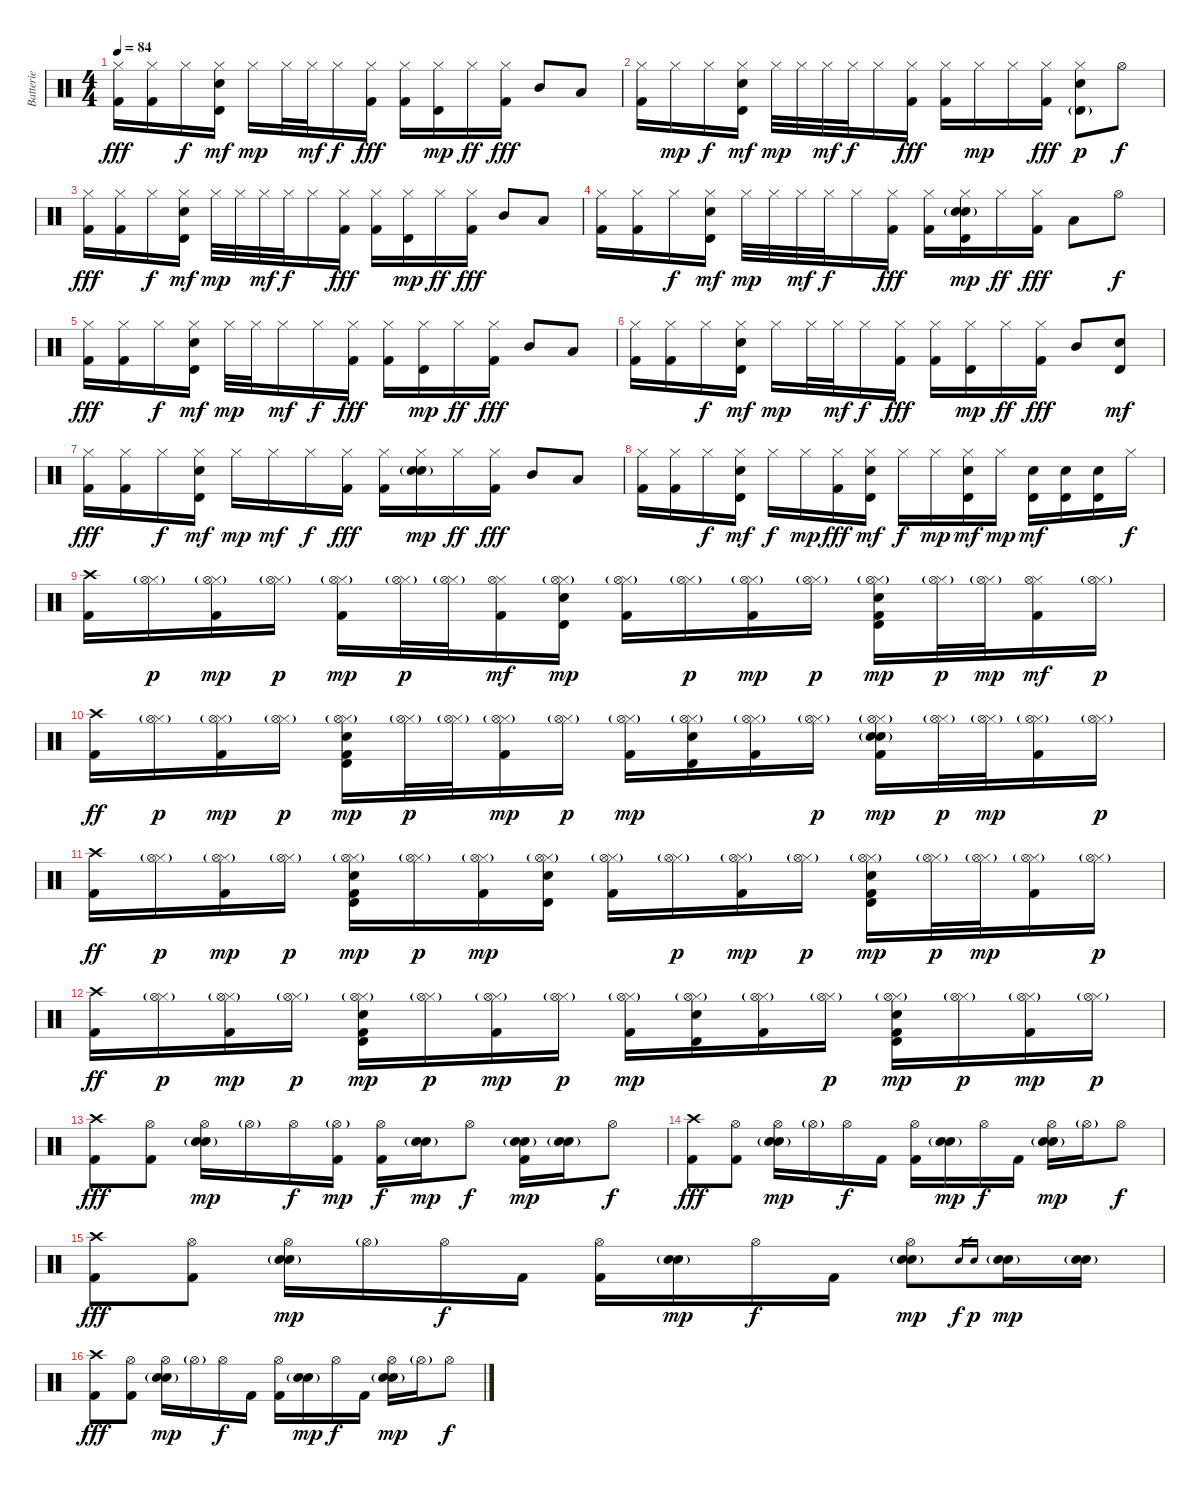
\track ("Batterie" "Batterie") {instrument percussion}
\staff {score}
\articulation defaults
\ts (4 4)
\tempo 84
\clef neutral
\ks c
("Hi-Hat (closed)" "Kick (hit) 2").16{dy fff} ("Hi-Hat (closed)" "Kick (hit) 2").16 "Hi-Hat (closed)".16{dy f} ("Hi-Hat (closed)" "Electric Snare (hit)" "Timbale high (hit)").16{dy mf} "Hi-Hat (closed)".16{dy mp} "Hi-Hat (closed)".32 "Hi-Hat (closed)".32{dy mf} "Hi-Hat (closed)".16{dy f} ("Hi-Hat (closed)" "Kick (hit) 2").16{dy fff} ("Hi-Hat (closed)" "Kick (hit) 2").16 ("Hi-Hat (closed)" "Timbale high (hit)").16{dy mp} "Hi-Hat (closed)".16{dy ff} ("Hi-Hat (closed)" "Kick (hit) 2").16{dy fff} "Mid Tom (hit)".8 "Low Tom (hit)".8 |
("Hi-Hat (closed)" "Kick (hit) 2").16 "Hi-Hat (closed)".16{dy mp} "Hi-Hat (closed)".16{dy f} ("Hi-Hat (closed)" "Electric Snare (hit)" "Timbale high (hit)").16{dy mf} "Hi-Hat (closed)".32{dy mp} "Hi-Hat (closed)".32 "Hi-Hat (closed)".32{dy mf} "Hi-Hat (closed)".32{dy f} "Hi-Hat (closed)".16 ("Hi-Hat (closed)" "Kick (hit) 2").16{dy fff} ("Hi-Hat (closed)" "Kick (hit) 2").16 "Hi-Hat (closed)".16{dy mp} "Hi-Hat (closed)".16 ("Hi-Hat (closed)" "Kick (hit) 2").16{dy fff} ("Hi-Hat (closed)" "Electric Snare (hit)" "Timbale high (hit)"{g}).8{dy p} "Hi-Hat (open)".8{dy f} |
("Hi-Hat (closed)" "Kick (hit) 2").16{dy fff} ("Hi-Hat (closed)" "Kick (hit) 2").16 "Hi-Hat (closed)".16{dy f} ("Hi-Hat (closed)" "Electric Snare (hit)" "Timbale high (hit)").16{dy mf} "Hi-Hat (closed)".32{dy mp} "Hi-Hat (closed)".32 "Hi-Hat (closed)".32{dy mf} "Hi-Hat (closed)".32{dy f} "Hi-Hat (closed)".16 ("Hi-Hat (closed)" "Kick (hit) 2").16{dy fff} ("Hi-Hat (closed)" "Kick (hit) 2").16 ("Hi-Hat (closed)" "Timbale high (hit)").16{dy mp} "Hi-Hat (closed)".16{dy ff} ("Hi-Hat (closed)" "Kick (hit) 2").16{dy fff} "Mid Tom (hit)".8 "Low Tom (hit)".8 |
("Hi-Hat (closed)" "Kick (hit) 2").16 ("Hi-Hat (closed)" "Kick (hit) 2").16 "Hi-Hat (closed)".16{dy f} ("Hi-Hat (closed)" "Electric Snare (hit)" "Timbale high (hit)").16{dy mf} "Hi-Hat (closed)".32{dy mp} "Hi-Hat (closed)".32 "Hi-Hat (closed)".32{dy mf} "Hi-Hat (closed)".32{dy f} "Hi-Hat (closed)".16 ("Hi-Hat (closed)" "Kick (hit) 2").16{dy fff} ("Hi-Hat (closed)" "Kick (hit) 2").16 ("Hi-Hat (closed)" "Electric Snare (hit)" "Timbale high (hit)" "Snare (hit) 2"{g}).16{dy mp} "Hi-Hat (closed)".16{dy ff} ("Hi-Hat (closed)" "Kick (hit) 2").16{dy fff} "Low Tom (hit)".8 "Hi-Hat (open)".8{dy f} |
("Hi-Hat (closed)" "Kick (hit) 2").16{dy fff} ("Hi-Hat (closed)" "Kick (hit) 2").16 "Hi-Hat (closed)".16{dy f} ("Hi-Hat (closed)" "Electric Snare (hit)" "Timbale high (hit)").16{dy mf} "Hi-Hat (closed)".32{dy mp} "Hi-Hat (closed)".32 "Hi-Hat (closed)".16{dy mf} "Hi-Hat (closed)".16{dy f} ("Hi-Hat (closed)" "Kick (hit) 2").16{dy fff} ("Hi-Hat (closed)" "Kick (hit) 2").16 ("Hi-Hat (closed)" "Timbale high (hit)").16{dy mp} "Hi-Hat (closed)".16{dy ff} ("Hi-Hat (closed)" "Kick (hit) 2").16{dy fff} "Mid Tom (hit)".8 "Low Tom (hit)".8 |
("Hi-Hat (closed)" "Kick (hit) 2").16 ("Hi-Hat (closed)" "Kick (hit) 2").16 "Hi-Hat (closed)".16{dy f} ("Hi-Hat (closed)" "Electric Snare (hit)" "Timbale high (hit)").16{dy mf} "Hi-Hat (closed)".16{dy mp} "Hi-Hat (closed)".32 "Hi-Hat (closed)".32{dy mf} "Hi-Hat (closed)".16{dy f} ("Hi-Hat (closed)" "Kick (hit) 2").16{dy fff} ("Hi-Hat (closed)" "Kick (hit) 2").16 ("Hi-Hat (closed)" "Timbale high (hit)").16{dy mp} "Hi-Hat (closed)".16{dy ff} ("Hi-Hat (closed)" "Kick (hit) 2").16{dy fff} "Mid Tom (hit)".8 ("Electric Snare (hit)" "Timbale high (hit)").8{dy mf} |
("Hi-Hat (closed)" "Kick (hit) 2").16{dy fff} ("Hi-Hat (closed)" "Kick (hit) 2").16 "Hi-Hat (closed)".16{dy f} ("Hi-Hat (closed)" "Electric Snare (hit)" "Timbale high (hit)").16{dy mf} "Hi-Hat (closed)".16{dy mp} "Hi-Hat (closed)".16{dy mf} "Hi-Hat (closed)".16{dy f} ("Hi-Hat (closed)" "Kick (hit) 2").16{dy fff} ("Hi-Hat (closed)" "Kick (hit) 2").16 ("Hi-Hat (closed)" "Electric Snare (hit)" "Snare (hit) 2"{g}).16{dy mp} "Hi-Hat (closed)".16{dy ff} ("Hi-Hat (closed)" "Kick (hit) 2").16{dy fff} "Mid Tom (hit)".8 "Low Tom (hit)".8 |
("Hi-Hat (closed)" "Kick (hit) 2").16 ("Hi-Hat (closed)" "Kick (hit) 2").16 "Hi-Hat (closed)".16{dy f} ("Hi-Hat (closed)" "Electric Snare (hit)" "Timbale high (hit)").16{dy mf} "Hi-Hat (closed)".16{dy f} "Hi-Hat (closed)".16{dy mp} ("Hi-Hat (closed)" "Kick (hit) 2").16{dy fff} ("Hi-Hat (closed)" "Electric Snare (hit)" "Timbale high (hit)").16{dy mf} "Hi-Hat (closed)".16{dy f} "Hi-Hat (closed)".16{dy mp} ("Hi-Hat (closed)" "Electric Snare (hit)" "Timbale high (hit)").16{dy mf} "Hi-Hat (closed)".16{dy mp} ("Electric Snare (hit)" "Timbale high (hit)").16{dy mf} ("Electric Snare (hit)" "Timbale high (hit)").16 ("Electric Snare (hit)" "Timbale high (hit)").16 "Hi-Hat (closed)".16{dy f} |
("Crash high (hit)" "Kick (hit) 2").16 ("Hi-Hat (closed)" "Hi-Hat (open)"{g}).16{dy p} ("Hi-Hat (closed)" "Hi-Hat (open)"{g} "Kick (hit) 2").16{dy mp} ("Hi-Hat (closed)" "Hi-Hat (open)"{g}).16{dy p} ("Hi-Hat (closed)" "Hi-Hat (open)"{g} "Kick (hit) 2").16{dy mp} ("Hi-Hat (closed)" "Hi-Hat (open)"{g}).32{dy p} ("Hi-Hat (closed)" "Hi-Hat (open)"{g}).32 ("Hi-Hat (closed)" "Hi-Hat (open)" "Kick (hit) 2").16{dy mf} ("Hi-Hat (closed)" "Hi-Hat (open)"{g} "Electric Snare (hit)" "Timbale high (hit)").16{dy mp} ("Hi-Hat (closed)" "Hi-Hat (open)"{g} "Kick (hit) 2").16 ("Hi-Hat (closed)" "Hi-Hat (open)"{g}).16{dy p} ("Hi-Hat (closed)" "Hi-Hat (open)"{g} "Kick (hit) 2").16{dy mp} ("Hi-Hat (closed)" "Hi-Hat (open)"{g}).16{dy p} ("Hi-Hat (closed)" "Hi-Hat (open)"{g} "Electric Snare (hit)" "Timbale high (hit)" "Kick (hit) 2").16{dy mp} ("Hi-Hat (closed)" "Hi-Hat (open)"{g}).32{dy p} ("Hi-Hat (closed)" "Hi-Hat (open)"{g}).32{dy mp} ("Hi-Hat (closed)" "Hi-Hat (open)" "Kick (hit) 2").16{dy mf} ("Hi-Hat (closed)" "Hi-Hat (open)"{g}).16{dy p} |
("Crash high (hit)" "Kick (hit) 2").16{dy ff} ("Hi-Hat (closed)" "Hi-Hat (open)"{g}).16{dy p} ("Hi-Hat (closed)" "Hi-Hat (open)"{g} "Kick (hit) 2").16{dy mp} ("Hi-Hat (closed)" "Hi-Hat (open)"{g}).16{dy p} ("Hi-Hat (closed)" "Hi-Hat (open)"{g} "Electric Snare (hit)" "Timbale high (hit)" "Kick (hit) 2").16{dy mp} ("Hi-Hat (closed)" "Hi-Hat (open)"{g}).32{dy p} ("Hi-Hat (closed)" "Hi-Hat (open)"{g}).32 ("Hi-Hat (closed)" "Hi-Hat (open)"{g} "Kick (hit) 2").16{dy mp} ("Hi-Hat (closed)" "Hi-Hat (open)"{g}).16{dy p} ("Hi-Hat (closed)" "Hi-Hat (open)"{g} "Kick (hit) 2").16{dy mp} ("Hi-Hat (closed)" "Hi-Hat (open)"{g} "Electric Snare (hit)" "Timbale high (hit)").16 ("Hi-Hat (closed)" "Hi-Hat (open)"{g} "Kick (hit) 2").16 ("Hi-Hat (closed)" "Hi-Hat (open)"{g}).16{dy p} ("Hi-Hat (closed)" "Hi-Hat (open)"{g} "Electric Snare (hit)" "Snare (hit) 2"{g} "Kick (hit) 2").16{dy mp} ("Hi-Hat (closed)" "Hi-Hat (open)"{g}).32{dy p} ("Hi-Hat (closed)" "Hi-Hat (open)"{g}).32{dy mp} ("Hi-Hat (closed)" "Hi-Hat (open)"{g} "Kick (hit) 2").16 ("Hi-Hat (closed)" "Hi-Hat (open)"{g}).16{dy p} |
("Crash high (hit)" "Kick (hit) 2").16{dy ff} ("Hi-Hat (closed)" "Hi-Hat (open)"{g}).16{dy p} ("Hi-Hat (closed)" "Hi-Hat (open)"{g} "Kick (hit) 2").16{dy mp} ("Hi-Hat (closed)" "Hi-Hat (open)"{g}).16{dy p} ("Hi-Hat (closed)" "Hi-Hat (open)"{g} "Electric Snare (hit)" "Timbale high (hit)" "Kick (hit) 2").16{dy mp} ("Hi-Hat (closed)" "Hi-Hat (open)"{g}).16{dy p} ("Hi-Hat (closed)" "Hi-Hat (open)"{g} "Kick (hit) 2").16{dy mp} ("Hi-Hat (closed)" "Hi-Hat (open)"{g} "Electric Snare (hit)" "Timbale high (hit)").16 ("Hi-Hat (closed)" "Hi-Hat (open)"{g} "Kick (hit) 2").16 ("Hi-Hat (closed)" "Hi-Hat (open)"{g}).16{dy p} ("Hi-Hat (closed)" "Hi-Hat (open)"{g} "Kick (hit) 2").16{dy mp} ("Hi-Hat (closed)" "Hi-Hat (open)"{g}).16{dy p} ("Hi-Hat (closed)" "Hi-Hat (open)"{g} "Electric Snare (hit)" "Timbale high (hit)" "Kick (hit) 2").16{dy mp} ("Hi-Hat (closed)" "Hi-Hat (open)"{g}).32{dy p} ("Hi-Hat (closed)" "Hi-Hat (open)"{g}).32{dy mp} ("Hi-Hat (closed)" "Hi-Hat (open)"{g} "Kick (hit) 2").16 ("Hi-Hat (closed)" "Hi-Hat (open)"{g}).16{dy p} |
("Crash high (hit)" "Kick (hit) 2").16{dy ff} ("Hi-Hat (closed)" "Hi-Hat (open)"{g}).16{dy p} ("Hi-Hat (closed)" "Hi-Hat (open)"{g} "Kick (hit) 2").16{dy mp} ("Hi-Hat (closed)" "Hi-Hat (open)"{g}).16{dy p} ("Hi-Hat (closed)" "Hi-Hat (open)"{g} "Electric Snare (hit)" "Timbale high (hit)" "Kick (hit) 2").16{dy mp} ("Hi-Hat (closed)" "Hi-Hat (open)"{g}).16{dy p} ("Hi-Hat (closed)" "Hi-Hat (open)"{g} "Kick (hit) 2").16{dy mp} ("Hi-Hat (closed)" "Hi-Hat (open)"{g}).16{dy p} ("Hi-Hat (closed)" "Hi-Hat (open)"{g} "Kick (hit) 2").16{dy mp} ("Hi-Hat (closed)" "Hi-Hat (open)"{g} "Electric Snare (hit)" "Timbale high (hit)").16 ("Hi-Hat (closed)" "Hi-Hat (open)"{g} "Kick (hit) 2").16 ("Hi-Hat (closed)" "Hi-Hat (open)"{g}).16{dy p} ("Hi-Hat (closed)" "Hi-Hat (open)"{g} "Electric Snare (hit)" "Timbale high (hit)" "Kick (hit) 2").16{dy mp} ("Hi-Hat (closed)" "Hi-Hat (open)"{g}).16{dy p} ("Hi-Hat (closed)" "Hi-Hat (open)"{g} "Kick (hit) 2").16{dy mp} ("Hi-Hat (closed)" "Hi-Hat (open)"{g}).16{dy p} |
("Crash high (hit)" "Kick (hit) 2").8{dy fff} ("Hi-Hat (open)" "Kick (hit) 2").8 ("Hi-Hat (open)" "Electric Snare (hit)" "Snare (hit) 2"{g}).16{dy mp} "Hi-Hat (open)"{g}.16 "Hi-Hat (open)".16{dy f} ("Hi-Hat (open)"{g} "Kick (hit) 2").16{dy mp} ("Hi-Hat (open)" "Kick (hit) 2").16{dy f} ("Electric Snare (hit)" "Snare (hit) 2"{g}).16{dy mp} "Hi-Hat (open)".8{dy f} ("Electric Snare (hit)" "Snare (hit) 2"{g} "Kick (hit) 2").16{dy mp} ("Electric Snare (hit)" "Snare (hit) 2"{g}).16 "Hi-Hat (open)".8{dy f} |
("Crash high (hit)" "Kick (hit) 2").8{dy fff} ("Hi-Hat (open)" "Kick (hit) 2").8 ("Hi-Hat (open)" "Electric Snare (hit)" "Snare (hit) 2"{g}).16{dy mp} "Hi-Hat (open)"{g}.16 "Hi-Hat (open)".16{dy f} "Kick (hit) 2".16 ("Hi-Hat (open)" "Kick (hit) 2").16 ("Electric Snare (hit)" "Snare (hit) 2"{g}).16{dy mp} "Hi-Hat (open)".16{dy f} "Kick (hit) 2".16 ("Hi-Hat (open)" "Electric Snare (hit)" "Snare (hit) 2"{g}).16{dy mp} "Hi-Hat (open)"{g}.16 "Hi-Hat (open)".8{dy f} |
("Crash high (hit)" "Kick (hit) 2").8{dy fff} ("Hi-Hat (open)" "Kick (hit) 2").8 ("Hi-Hat (open)" "Electric Snare (hit)" "Snare (hit) 2"{g}).16{dy mp} "Hi-Hat (open)"{g}.16 "Hi-Hat (open)".16{dy f} "Kick (hit) 2".16 ("Hi-Hat (open)" "Kick (hit) 2").16 ("Electric Snare (hit)" "Snare (hit) 2"{g}).16{dy mp} "Hi-Hat (open)".16{dy f} "Kick (hit) 2".16 ("Hi-Hat (open)" "Electric Snare (hit)" "Snare (hit) 2"{g}).8{dy mp} "Electric Snare (hit)".16{gr dy f} "Snare (hit) 2".16{gr dy p} ("Electric Snare (hit)" "Snare (hit) 2"{g}).16{dy mp} ("Electric Snare (hit)" "Snare (hit) 2"{g}).16 |
("Crash high (hit)" "Kick (hit) 2").8{dy fff} ("Hi-Hat (open)" "Kick (hit) 2").8 ("Hi-Hat (open)" "Electric Snare (hit)" "Snare (hit) 2"{g}).16{dy mp} "Hi-Hat (open)"{g}.16 "Hi-Hat (open)".16{dy f} "Kick (hit) 2".16 ("Hi-Hat (open)" "Kick (hit) 2").16 ("Electric Snare (hit)" "Snare (hit) 2"{g}).16{dy mp} "Hi-Hat (open)".16{dy f} "Kick (hit) 2".16 ("Hi-Hat (open)" "Electric Snare (hit)" "Snare (hit) 2"{g}).16{dy mp} "Hi-Hat (open)"{g}.16 "Hi-Hat (open)".8{dy f}
